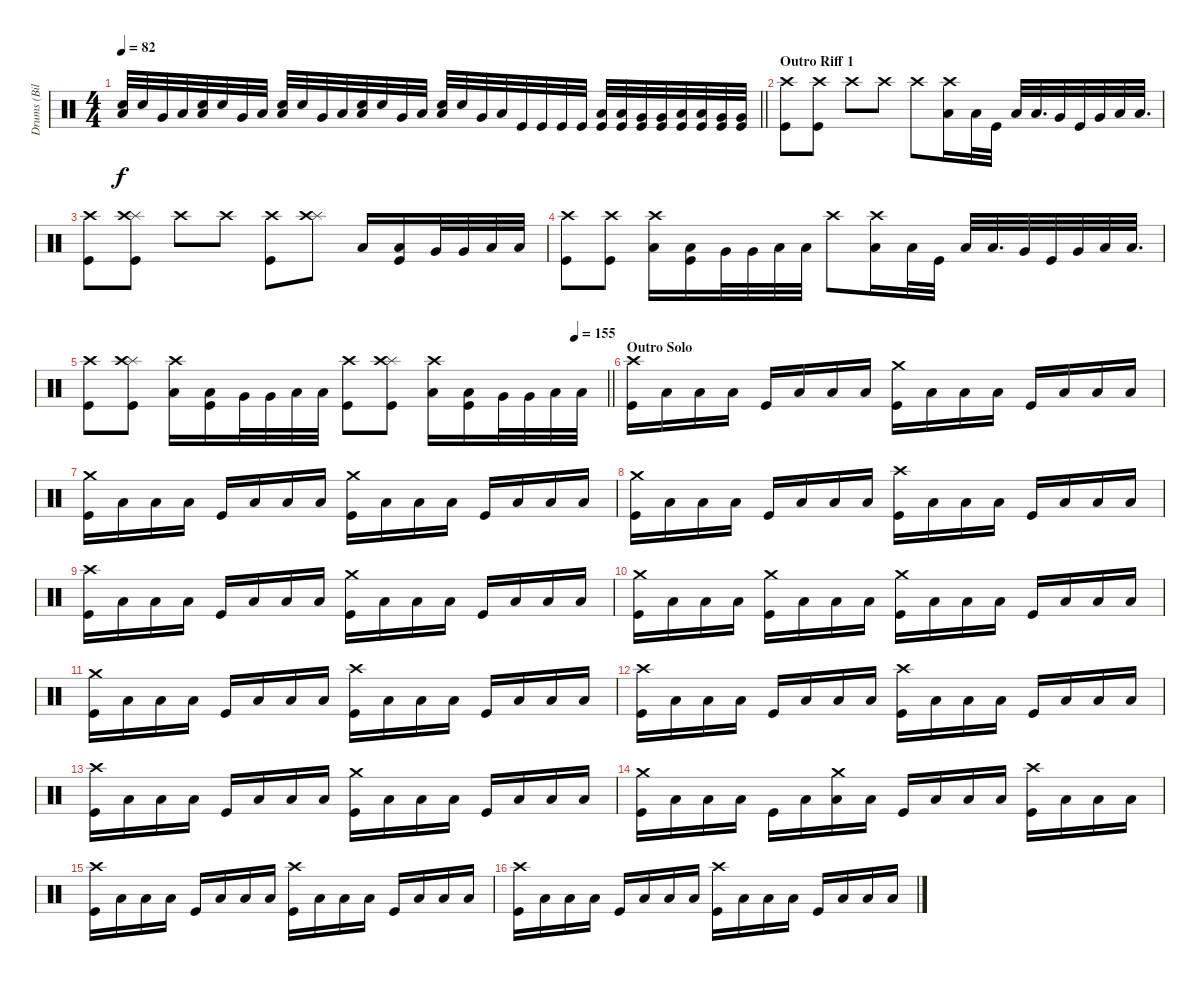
\track ("Drums (Bill Ward)" "Drums (Bil") {instrument percussion}
\staff {score}
\articulation defaults
\ts (4 4)
\tempo 82
\clef neutral
\barLineRight lightlight
\ks c
("Low Tom (hit)" "Electric Snare (hit)").32{dy f volume 14} "Electric Snare (hit)".32 "Very Low Tom (hit)".32 "Low Floor Tom (hit)".32 ("Low Tom (hit)" "Electric Snare (hit)").32 "Electric Snare (hit)".32 "Very Low Tom (hit)".32 "Low Floor Tom (hit)".32 ("Low Tom (hit)" "Electric Snare (hit)").32 "Electric Snare (hit)".32 "Very Low Tom (hit)".32 "Low Floor Tom (hit)".32 ("Low Tom (hit)" "Electric Snare (hit)").32 "Electric Snare (hit)".32 "Very Low Tom (hit)".32 "Low Floor Tom (hit)".32 ("Low Tom (hit)" "Electric Snare (hit)").32 "Electric Snare (hit)".32 "Very Low Tom (hit)".32 "Low Floor Tom (hit)".32 "Kick (hit)".32 "Kick (hit)".32 "Kick (hit)".32 "Kick (hit)".32 ("Low Floor Tom (hit)" "Kick (hit)").32 ("Low Floor Tom (hit)" "Kick (hit)").32 ("Very Low Tom (hit)" "Kick (hit)").32 ("Very Low Tom (hit)" "Kick (hit)").32 ("Low Floor Tom (hit)" "Kick (hit)").32 ("Low Floor Tom (hit)" "Kick (hit)").32 ("Very Low Tom (hit)" "Kick (hit)").32 ("Very Low Tom (hit)" "Kick (hit)").32 |
\section ("" "Outro Riff 1")
("Crash high (hit)" "Kick (hit)").8{volume 12} ("Crash high (hit)" "Kick (hit)").8 "Crash high (hit)".8 "Crash high (hit)".8 "Crash high (hit)".8 ("Crash high (hit)" "Low Tom (hit)").16 "Low Tom (hit)".32 "Kick (hit)".32 "Low Tom (hit)".32 "Low Tom (hit)".32{d} "Very Low Tom (hit)".32 "Kick (hit)".32 "Very Low Tom (hit)".32 "Low Floor Tom (hit)".32 "Low Floor Tom (hit)".32{d} |
("Crash high (hit)" "Kick (hit)").8 ("Splash (hit)" "Crash high (hit)" "Kick (hit)").8 "Crash high (hit)".8 "Crash high (hit)".8 ("Crash high (hit)" "Kick (hit)").8 ("Splash (hit)" "Crash high (hit)").8 "Low Tom (hit)".16 ("Low Tom (hit)" "Kick (hit)").16 "Very Low Tom (hit)".32 "Very Low Tom (hit)".32 "Low Floor Tom (hit)".32 "Low Floor Tom (hit)".32 |
("Crash high (hit)" "Kick (hit)").8 ("Crash high (hit)" "Kick (hit)").8 ("Crash high (hit)" "Low Tom (hit)").16 ("Low Tom (hit)" "Kick (hit)").16 "Very Low Tom (hit)".32 "Very Low Tom (hit)".32 "Low Floor Tom (hit)".32 "Low Floor Tom (hit)".32 "Crash high (hit)".8 ("Crash high (hit)" "Low Tom (hit)").16 "Low Tom (hit)".32 "Kick (hit)".32 "Low Tom (hit)".32 "Low Tom (hit)".32{d} "Very Low Tom (hit)".32 "Kick (hit)".32 "Very Low Tom (hit)".32 "Low Floor Tom (hit)".32 "Low Floor Tom (hit)".32{d} |
\tempo (155 0.9375)
\barLineRight lightlight
("Crash high (hit)" "Kick (hit)").8 ("Splash (hit)" "Crash high (hit)" "Kick (hit)").8 ("Crash high (hit)" "Low Tom (hit)").16 ("Low Tom (hit)" "Kick (hit)").16 "Very Low Tom (hit)".32 "Very Low Tom (hit)".32 "Low Floor Tom (hit)".32 "Low Floor Tom (hit)".32 ("Crash high (hit)" "Kick (hit)").8 ("Splash (hit)" "Crash high (hit)" "Kick (hit)").8 ("Crash high (hit)" "Low Tom (hit)").16 ("Low Tom (hit)" "Kick (hit)").16 "Very Low Tom (hit)".32 "Very Low Tom (hit)".32 "Low Floor Tom (hit)".32 "Low Floor Tom (hit)".32 |
\section ("" "Outro Solo")
("Crash high (hit)" "Kick (hit)").16{volume 12} "Low Tom (hit)".16 "Low Tom (hit)".16 "Low Tom (hit)".16 "Kick (hit)".16 "Low Tom (hit)".16 "Low Tom (hit)".16 "Low Tom (hit)".16 ("Crash medium (hit)" "Kick (hit)").16 "Low Tom (hit)".16 "Low Tom (hit)".16 "Low Tom (hit)".16 "Kick (hit)".16 "Low Tom (hit)".16 "Low Tom (hit)".16 "Low Tom (hit)".16 |
("Crash medium (hit)" "Kick (hit)").16 "Low Tom (hit)".16 "Low Tom (hit)".16 "Low Tom (hit)".16 "Kick (hit)".16 "Low Tom (hit)".16 "Low Tom (hit)".16 "Low Tom (hit)".16 ("Crash medium (hit)" "Kick (hit)").16 "Low Tom (hit)".16 "Low Tom (hit)".16 "Low Tom (hit)".16 "Kick (hit)".16 "Low Tom (hit)".16 "Low Tom (hit)".16 "Low Tom (hit)".16 |
("Crash medium (hit)" "Kick (hit)").16 "Low Tom (hit)".16 "Low Tom (hit)".16 "Low Tom (hit)".16 "Kick (hit)".16 "Low Tom (hit)".16 "Low Tom (hit)".16 "Low Tom (hit)".16 ("Crash high (hit)" "Kick (hit)").16 "Low Tom (hit)".16 "Low Tom (hit)".16 "Low Tom (hit)".16 "Kick (hit)".16 "Low Tom (hit)".16 "Low Tom (hit)".16 "Low Tom (hit)".16 |
("Crash high (hit)" "Kick (hit)").16 "Low Tom (hit)".16 "Low Tom (hit)".16 "Low Tom (hit)".16 "Kick (hit)".16 "Low Tom (hit)".16 "Low Tom (hit)".16 "Low Tom (hit)".16 ("Crash medium (hit)" "Kick (hit)").16 "Low Tom (hit)".16 "Low Tom (hit)".16 "Low Tom (hit)".16 "Kick (hit)".16 "Low Tom (hit)".16 "Low Tom (hit)".16 "Low Tom (hit)".16 |
("Crash medium (hit)" "Kick (hit)").16 "Low Tom (hit)".16 "Low Tom (hit)".16 "Low Tom (hit)".16 ("Crash medium (hit)" "Kick (hit)").16 "Low Tom (hit)".16 "Low Tom (hit)".16 "Low Tom (hit)".16 ("Crash medium (hit)" "Kick (hit)").16 "Low Tom (hit)".16 "Low Tom (hit)".16 "Low Tom (hit)".16 "Kick (hit)".16 "Low Tom (hit)".16 "Low Tom (hit)".16 "Low Tom (hit)".16 |
("Crash medium (hit)" "Kick (hit)").16 "Low Tom (hit)".16 "Low Tom (hit)".16 "Low Tom (hit)".16 "Kick (hit)".16 "Low Tom (hit)".16 "Low Tom (hit)".16 "Low Tom (hit)".16 ("Crash high (hit)" "Kick (hit)").16 "Low Tom (hit)".16 "Low Tom (hit)".16 "Low Tom (hit)".16 "Kick (hit)".16 "Low Tom (hit)".16 "Low Tom (hit)".16 "Low Tom (hit)".16 |
("Crash high (hit)" "Kick (hit)").16 "Low Tom (hit)".16 "Low Tom (hit)".16 "Low Tom (hit)".16 "Kick (hit)".16 "Low Tom (hit)".16 "Low Tom (hit)".16 "Low Tom (hit)".16 ("Crash high (hit)" "Kick (hit)").16 "Low Tom (hit)".16 "Low Tom (hit)".16 "Low Tom (hit)".16 "Kick (hit)".16 "Low Tom (hit)".16 "Low Tom (hit)".16 "Low Tom (hit)".16 |
("Crash high (hit)" "Kick (hit)").16 "Low Tom (hit)".16 "Low Tom (hit)".16 "Low Tom (hit)".16 "Kick (hit)".16 "Low Tom (hit)".16 "Low Tom (hit)".16 "Low Tom (hit)".16 ("Crash medium (hit)" "Kick (hit)").16 "Low Tom (hit)".16 "Low Tom (hit)".16 "Low Tom (hit)".16 "Kick (hit)".16 "Low Tom (hit)".16 "Low Tom (hit)".16 "Low Tom (hit)".16 |
("Crash medium (hit)" "Kick (hit)").16 "Low Tom (hit)".16 "Low Tom (hit)".16 "Low Tom (hit)".16 "Kick (hit)".16 "Low Tom (hit)".16 ("Crash medium (hit)" "Low Tom (hit)").16 "Low Tom (hit)".16 "Kick (hit)".16 "Low Tom (hit)".16 "Low Tom (hit)".16 "Low Tom (hit)".16 ("Crash high (hit)" "Kick (hit)").16 "Low Tom (hit)".16 "Low Tom (hit)".16 "Low Tom (hit)".16 |
("Crash high (hit)" "Kick (hit)").16 "Low Tom (hit)".16 "Low Tom (hit)".16 "Low Tom (hit)".16 "Kick (hit)".16 "Low Tom (hit)".16 "Low Tom (hit)".16 "Low Tom (hit)".16 ("Crash high (hit)" "Kick (hit)").16 "Low Tom (hit)".16 "Low Tom (hit)".16 "Low Tom (hit)".16 "Kick (hit)".16 "Low Tom (hit)".16 "Low Tom (hit)".16 "Low Tom (hit)".16 |
("Crash high (hit)" "Kick (hit)").16 "Low Tom (hit)".16 "Low Tom (hit)".16 "Low Tom (hit)".16 "Kick (hit)".16 "Low Tom (hit)".16 "Low Tom (hit)".16 "Low Tom (hit)".16 ("Crash high (hit)" "Kick (hit)").16 "Low Tom (hit)".16 "Low Tom (hit)".16 "Low Tom (hit)".16 "Kick (hit)".16 "Low Tom (hit)".16 "Low Tom (hit)".16 "Low Tom (hit)".16
